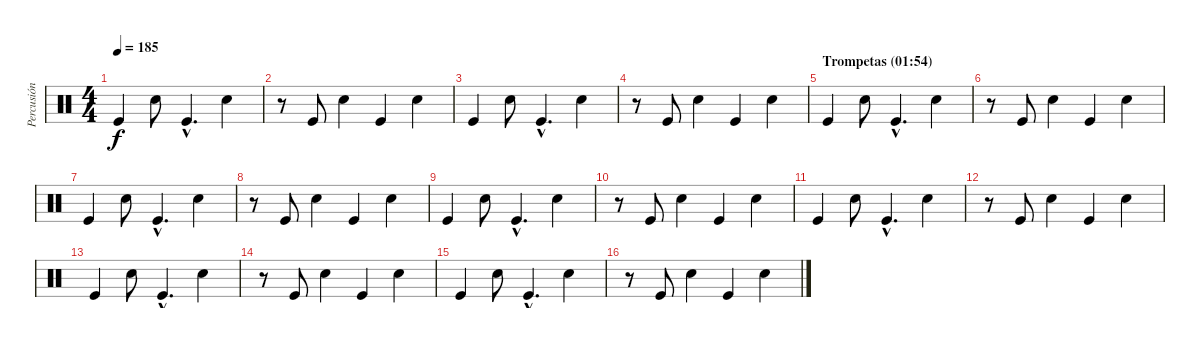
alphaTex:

\track ("Percusión" "Percusión") {instrument percussion}
\staff {score}
\articulation defaults
\ts (4 4)
\tempo 185
\clef neutral
\ks c "Kick (hit)".4{dy f} "Electric Snare (hit)".8 "Kick (hit)"{hac}.4{d} "Electric Snare (hit)".4
|
r.8 "Kick (hit)".8 "Electric Snare (hit)".4 "Kick (hit)".4 "Electric Snare (hit)".4 |
"Kick (hit)".4 "Electric Snare (hit)".8 "Kick (hit)"{hac}.4{d} "Electric Snare (hit)".4 |
r.8 "Kick (hit)".8 "Electric Snare (hit)".4 "Kick (hit)".4 "Electric Snare (hit)".4 |
\section ("" "Trompetas (01:54)")
"Kick (hit)".4 "Electric Snare (hit)".8 "Kick (hit)"{hac}.4{d} "Electric Snare (hit)".4 |
r.8 "Kick (hit)".8 "Electric Snare (hit)".4 "Kick (hit)".4 "Electric Snare (hit)".4 |
"Kick (hit)".4 "Electric Snare (hit)".8 "Kick (hit)"{hac}.4{d} "Electric Snare (hit)".4 |
r.8 "Kick (hit)".8 "Electric Snare (hit)".4 "Kick (hit)".4 "Electric Snare (hit)".4 |
"Kick (hit)".4 "Electric Snare (hit)".8 "Kick (hit)"{hac}.4{d} "Electric Snare (hit)".4 |
r.8 "Kick (hit)".8 "Electric Snare (hit)".4 "Kick (hit)".4 "Electric Snare (hit)".4 |
"Kick (hit)".4 "Electric Snare (hit)".8 "Kick (hit)"{hac}.4{d} "Electric Snare (hit)".4 |
r.8 "Kick (hit)".8 "Electric Snare (hit)".4 "Kick (hit)".4 "Electric Snare (hit)".4 |
"Kick (hit)".4 "Electric Snare (hit)".8 "Kick (hit)"{hac}.4{d} "Electric Snare (hit)".4 |
r.8 "Kick (hit)".8 "Electric Snare (hit)".4 "Kick (hit)".4 "Electric Snare (hit)".4 |
"Kick (hit)".4 "Electric Snare (hit)".8 "Kick (hit)"{hac}.4{d} "Electric Snare (hit)".4 |
r.8 "Kick (hit)".8 "Electric Snare (hit)".4 "Kick (hit)".4 "Electric Snare (hit)".4
